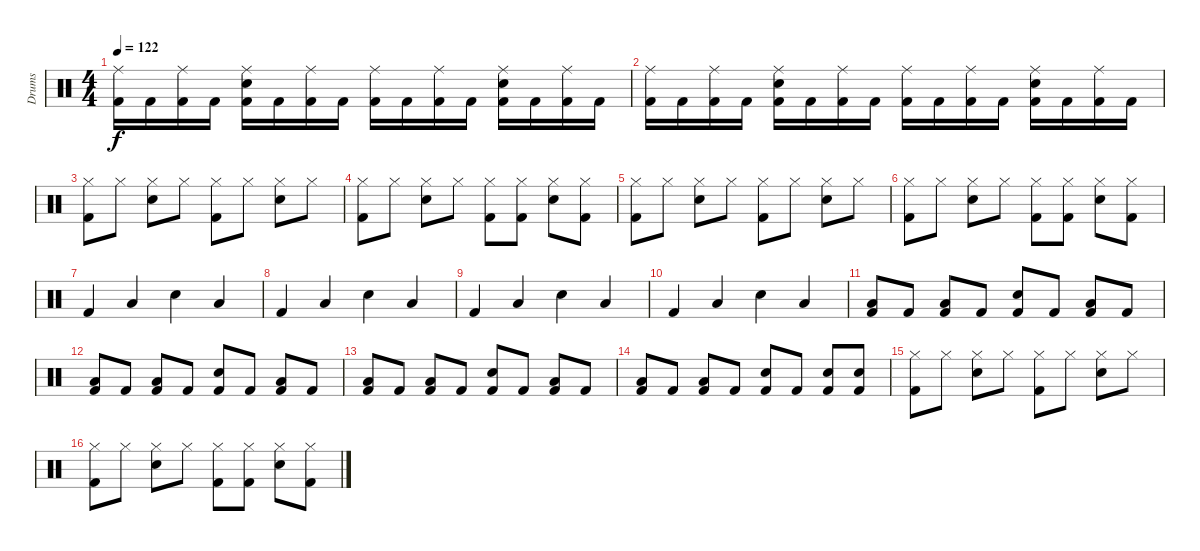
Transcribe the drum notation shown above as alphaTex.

\track ("Drums" "Drums") {instrument percussion}
\staff {score}
\articulation defaults
\ts (4 4)
\tempo 122
\clef neutral
\ks c
("Ride (middle)" "Kick (hit) 2").16{dy f} "Kick (hit) 2".16 ("Ride (middle)" "Kick (hit) 2").16 "Kick (hit) 2".16 ("Ride (middle)" "Electric Snare (hit)" "Kick (hit) 2").16 "Kick (hit) 2".16 ("Ride (middle)" "Kick (hit) 2").16 "Kick (hit) 2".16 ("Ride (middle)" "Kick (hit) 2").16 "Kick (hit) 2".16 ("Ride (middle)" "Kick (hit) 2").16 "Kick (hit) 2".16 ("Ride (middle)" "Electric Snare (hit)" "Kick (hit) 2").16 "Kick (hit) 2".16 ("Ride (middle)" "Kick (hit) 2").16 "Kick (hit) 2".16 |
("Ride (middle)" "Kick (hit) 2").16 "Kick (hit) 2".16 ("Ride (middle)" "Kick (hit) 2").16 "Kick (hit) 2".16 ("Ride (middle)" "Electric Snare (hit)" "Kick (hit) 2").16 "Kick (hit) 2".16 ("Ride (middle)" "Kick (hit) 2").16 "Kick (hit) 2".16 ("Ride (middle)" "Kick (hit) 2").16 "Kick (hit) 2".16 ("Ride (middle)" "Kick (hit) 2").16 "Kick (hit) 2".16 ("Ride (middle)" "Electric Snare (hit)" "Kick (hit) 2").16 "Kick (hit) 2".16 ("Ride (middle)" "Kick (hit) 2").16 "Kick (hit) 2".16 |
("Hi-Hat (closed)" "Kick (hit) 2").8 "Hi-Hat (closed)".8 ("Hi-Hat (closed)" "Electric Snare (hit)").8 "Hi-Hat (closed)".8 ("Hi-Hat (closed)" "Kick (hit) 2").8 "Hi-Hat (closed)".8 ("Hi-Hat (closed)" "Electric Snare (hit)").8 "Hi-Hat (closed)".8 |
("Hi-Hat (closed)" "Kick (hit) 2").8 "Hi-Hat (closed)".8 ("Hi-Hat (closed)" "Electric Snare (hit)").8 "Hi-Hat (closed)".8 ("Hi-Hat (closed)" "Kick (hit) 2").8 ("Hi-Hat (closed)" "Kick (hit) 2").8 ("Hi-Hat (closed)" "Electric Snare (hit)").8 ("Hi-Hat (closed)" "Kick (hit) 2").8 |
("Hi-Hat (closed)" "Kick (hit) 2").8 "Hi-Hat (closed)".8 ("Hi-Hat (closed)" "Electric Snare (hit)").8 "Hi-Hat (closed)".8 ("Hi-Hat (closed)" "Kick (hit) 2").8 "Hi-Hat (closed)".8 ("Hi-Hat (closed)" "Electric Snare (hit)").8 "Hi-Hat (closed)".8 |
("Hi-Hat (closed)" "Kick (hit) 2").8 "Hi-Hat (closed)".8 ("Hi-Hat (closed)" "Electric Snare (hit)").8 "Hi-Hat (closed)".8 ("Hi-Hat (closed)" "Kick (hit) 2").8 ("Hi-Hat (closed)" "Kick (hit) 2").8 ("Hi-Hat (closed)" "Electric Snare (hit)").8 ("Hi-Hat (closed)" "Kick (hit) 2").8 |
"Kick (hit) 2".4 "Low Floor Tom (hit)".4 "Electric Snare (hit)".4 "Low Floor Tom (hit)".4 |
"Kick (hit) 2".4 "Low Floor Tom (hit)".4 "Electric Snare (hit)".4 "Low Floor Tom (hit)".4 |
"Kick (hit) 2".4 "Low Floor Tom (hit)".4 "Electric Snare (hit)".4 "Low Floor Tom (hit)".4 |
"Kick (hit) 2".4 "Low Floor Tom (hit)".4 "Electric Snare (hit)".4 "Low Floor Tom (hit)".4 |
("Low Floor Tom (hit)" "Kick (hit) 2").8 "Kick (hit) 2".8 ("Low Floor Tom (hit)" "Kick (hit) 2").8 "Kick (hit) 2".8 ("Electric Snare (hit)" "Kick (hit) 2").8 "Kick (hit) 2".8 ("Low Floor Tom (hit)" "Kick (hit) 2").8 "Kick (hit) 2".8 |
("Low Floor Tom (hit)" "Kick (hit) 2").8 "Kick (hit) 2".8 ("Low Floor Tom (hit)" "Kick (hit) 2").8 "Kick (hit) 2".8 ("Electric Snare (hit)" "Kick (hit) 2").8 "Kick (hit) 2".8 ("Low Floor Tom (hit)" "Kick (hit) 2").8 "Kick (hit) 2".8 |
("Low Floor Tom (hit)" "Kick (hit) 2").8 "Kick (hit) 2".8 ("Low Floor Tom (hit)" "Kick (hit) 2").8 "Kick (hit) 2".8 ("Electric Snare (hit)" "Kick (hit) 2").8 "Kick (hit) 2".8 ("Low Floor Tom (hit)" "Kick (hit) 2").8 "Kick (hit) 2".8 |
("Low Floor Tom (hit)" "Kick (hit) 2").8 "Kick (hit) 2".8 ("Low Floor Tom (hit)" "Kick (hit) 2").8 "Kick (hit) 2".8 ("Electric Snare (hit)" "Kick (hit) 2").8 "Kick (hit) 2".8 ("Electric Snare (hit)" "Kick (hit) 2").8 ("Electric Snare (hit)" "Kick (hit) 2").8 |
("Hi-Hat (closed)" "Kick (hit) 2").8 "Hi-Hat (closed)".8 ("Hi-Hat (closed)" "Electric Snare (hit)").8 "Hi-Hat (closed)".8 ("Hi-Hat (closed)" "Kick (hit) 2").8 "Hi-Hat (closed)".8 ("Hi-Hat (closed)" "Electric Snare (hit)").8 "Hi-Hat (closed)".8 |
("Hi-Hat (closed)" "Kick (hit) 2").8 "Hi-Hat (closed)".8 ("Hi-Hat (closed)" "Electric Snare (hit)").8 "Hi-Hat (closed)".8 ("Hi-Hat (closed)" "Kick (hit) 2").8 ("Hi-Hat (closed)" "Kick (hit) 2").8 ("Hi-Hat (closed)" "Electric Snare (hit)").8 ("Hi-Hat (closed)" "Kick (hit) 2").8
